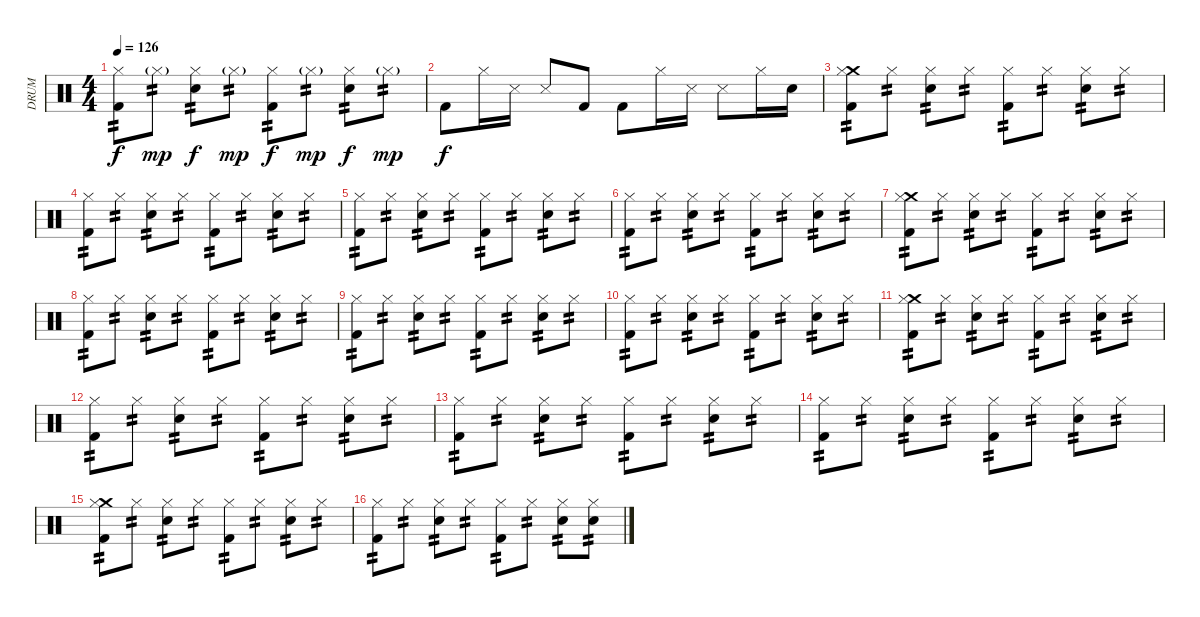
\track ("DRUM" "DRUM") {instrument percussion}
\staff {score}
\articulation defaults
\ts (4 4)
\tempo 126
\clef neutral
\ks c
("Hi-Hat (closed)" "Kick (hit) 2").8{tp 2 dy f} "Hi-Hat (closed)"{g}.8{tp 2 dy mp} ("Hi-Hat (closed)" "Electric Snare (hit)").8{tp 2 dy f} "Hi-Hat (closed)"{g}.8{tp 2 dy mp} ("Hi-Hat (closed)" "Kick (hit) 2").8{tp 2 dy f} "Hi-Hat (closed)"{g}.8{tp 2 dy mp} ("Hi-Hat (closed)" "Electric Snare (hit)").8{tp 2 dy f} "Hi-Hat (closed)"{g}.8{tp 2 dy mp} |
"Kick (hit) 2".8{dy f} "Hi-Hat (closed)".16 "Metronome (hit)".16 "Snare (side stick) 3".8 "Kick (hit) 2".8 "Kick (hit) 2".8 "Hi-Hat (closed)".16 "Metronome (hit)".16 "Snare (side stick) 3".8 "Hi-Hat (closed)".16 "Electric Snare (hit)".16 |
("Crash medium (hit)" "Hi-Hat (closed)" "Kick (hit) 2").8{tp 2} "Hi-Hat (closed)".8{tp 2} ("Hi-Hat (closed)" "Electric Snare (hit)").8{tp 2} "Hi-Hat (closed)".8{tp 2} ("Hi-Hat (closed)" "Kick (hit) 2").8{tp 2} "Hi-Hat (closed)".8{tp 2} ("Hi-Hat (closed)" "Electric Snare (hit)").8{tp 2} "Hi-Hat (closed)".8{tp 2} |
("Hi-Hat (closed)" "Kick (hit) 2").8{tp 2} "Hi-Hat (closed)".8{tp 2} ("Hi-Hat (closed)" "Electric Snare (hit)").8{tp 2} "Hi-Hat (closed)".8{tp 2} ("Hi-Hat (closed)" "Kick (hit) 2").8{tp 2} "Hi-Hat (closed)".8{tp 2} ("Hi-Hat (closed)" "Electric Snare (hit)").8{tp 2} "Hi-Hat (closed)".8{tp 2} |
("Hi-Hat (closed)" "Kick (hit) 2").8{tp 2} "Hi-Hat (closed)".8{tp 2} ("Hi-Hat (closed)" "Electric Snare (hit)").8{tp 2} "Hi-Hat (closed)".8{tp 2} ("Hi-Hat (closed)" "Kick (hit) 2").8{tp 2} "Hi-Hat (closed)".8{tp 2} ("Hi-Hat (closed)" "Electric Snare (hit)").8{tp 2} "Hi-Hat (closed)".8{tp 2} |
("Hi-Hat (closed)" "Kick (hit) 2").8{tp 2} "Hi-Hat (closed)".8{tp 2} ("Hi-Hat (closed)" "Electric Snare (hit)").8{tp 2} "Hi-Hat (closed)".8{tp 2} ("Hi-Hat (closed)" "Kick (hit) 2").8{tp 2} "Hi-Hat (closed)".8{tp 2} ("Hi-Hat (closed)" "Electric Snare (hit)").8{tp 2} "Hi-Hat (closed)".8{tp 2} |
("Crash medium (hit)" "Hi-Hat (closed)" "Kick (hit) 2").8{tp 2} "Hi-Hat (closed)".8{tp 2} ("Hi-Hat (closed)" "Electric Snare (hit)").8{tp 2} "Hi-Hat (closed)".8{tp 2} ("Hi-Hat (closed)" "Kick (hit) 2").8{tp 2} "Hi-Hat (closed)".8{tp 2} ("Hi-Hat (closed)" "Electric Snare (hit)").8{tp 2} "Hi-Hat (closed)".8{tp 2} |
("Hi-Hat (closed)" "Kick (hit) 2").8{tp 2} "Hi-Hat (closed)".8{tp 2} ("Hi-Hat (closed)" "Electric Snare (hit)").8{tp 2} "Hi-Hat (closed)".8{tp 2} ("Hi-Hat (closed)" "Kick (hit) 2").8{tp 2} "Hi-Hat (closed)".8{tp 2} ("Hi-Hat (closed)" "Electric Snare (hit)").8{tp 2} "Hi-Hat (closed)".8{tp 2} |
("Hi-Hat (closed)" "Kick (hit) 2").8{tp 2} "Hi-Hat (closed)".8{tp 2} ("Hi-Hat (closed)" "Electric Snare (hit)").8{tp 2} "Hi-Hat (closed)".8{tp 2} ("Hi-Hat (closed)" "Kick (hit) 2").8{tp 2} "Hi-Hat (closed)".8{tp 2} ("Hi-Hat (closed)" "Electric Snare (hit)").8{tp 2} "Hi-Hat (closed)".8{tp 2} |
("Hi-Hat (closed)" "Kick (hit) 2").8{tp 2} "Hi-Hat (closed)".8{tp 2} ("Hi-Hat (closed)" "Electric Snare (hit)").8{tp 2} "Hi-Hat (closed)".8{tp 2} ("Hi-Hat (closed)" "Kick (hit) 2").8{tp 2} "Hi-Hat (closed)".8{tp 2} ("Hi-Hat (closed)" "Electric Snare (hit)").8{tp 2} "Hi-Hat (closed)".8{tp 2} |
("Crash medium (hit)" "Hi-Hat (closed)" "Kick (hit) 2").8{tp 2} "Hi-Hat (closed)".8{tp 2} ("Hi-Hat (closed)" "Electric Snare (hit)").8{tp 2} "Hi-Hat (closed)".8{tp 2} ("Hi-Hat (closed)" "Kick (hit) 2").8{tp 2} "Hi-Hat (closed)".8{tp 2} ("Hi-Hat (closed)" "Electric Snare (hit)").8{tp 2} "Hi-Hat (closed)".8{tp 2} |
("Hi-Hat (closed)" "Kick (hit) 2").8{tp 2} "Hi-Hat (closed)".8{tp 2} ("Hi-Hat (closed)" "Electric Snare (hit)").8{tp 2} "Hi-Hat (closed)".8{tp 2} ("Hi-Hat (closed)" "Kick (hit) 2").8{tp 2} "Hi-Hat (closed)".8{tp 2} ("Hi-Hat (closed)" "Electric Snare (hit)").8{tp 2} "Hi-Hat (closed)".8{tp 2} |
("Hi-Hat (closed)" "Kick (hit) 2").8{tp 2} "Hi-Hat (closed)".8{tp 2} ("Hi-Hat (closed)" "Electric Snare (hit)").8{tp 2} "Hi-Hat (closed)".8{tp 2} ("Hi-Hat (closed)" "Kick (hit) 2").8{tp 2} "Hi-Hat (closed)".8{tp 2} ("Hi-Hat (closed)" "Electric Snare (hit)").8{tp 2} "Hi-Hat (closed)".8{tp 2} |
("Hi-Hat (closed)" "Kick (hit) 2").8{tp 2} "Hi-Hat (closed)".8{tp 2} ("Hi-Hat (closed)" "Electric Snare (hit)").8{tp 2} "Hi-Hat (closed)".8{tp 2} ("Hi-Hat (closed)" "Kick (hit) 2").8{tp 2} "Hi-Hat (closed)".8{tp 2} ("Hi-Hat (closed)" "Electric Snare (hit)").8{tp 2} "Hi-Hat (closed)".8{tp 2} |
("Crash medium (hit)" "Hi-Hat (closed)" "Kick (hit) 2").8{tp 2} "Hi-Hat (closed)".8{tp 2} ("Hi-Hat (closed)" "Electric Snare (hit)").8{tp 2} "Hi-Hat (closed)".8{tp 2} ("Hi-Hat (closed)" "Kick (hit) 2").8{tp 2} "Hi-Hat (closed)".8{tp 2} ("Hi-Hat (closed)" "Electric Snare (hit)").8{tp 2} "Hi-Hat (closed)".8{tp 2} |
("Hi-Hat (closed)" "Kick (hit) 2").8{tp 2} "Hi-Hat (closed)".8{tp 2} ("Hi-Hat (closed)" "Electric Snare (hit)").8{tp 2} "Hi-Hat (closed)".8{tp 2} ("Hi-Hat (closed)" "Kick (hit) 2").8{tp 2} "Hi-Hat (closed)".8{tp 2} ("Hi-Hat (closed)" "Electric Snare (hit)").8{tp 2} ("Hi-Hat (closed)" "Electric Snare (hit)").8{tp 2}
